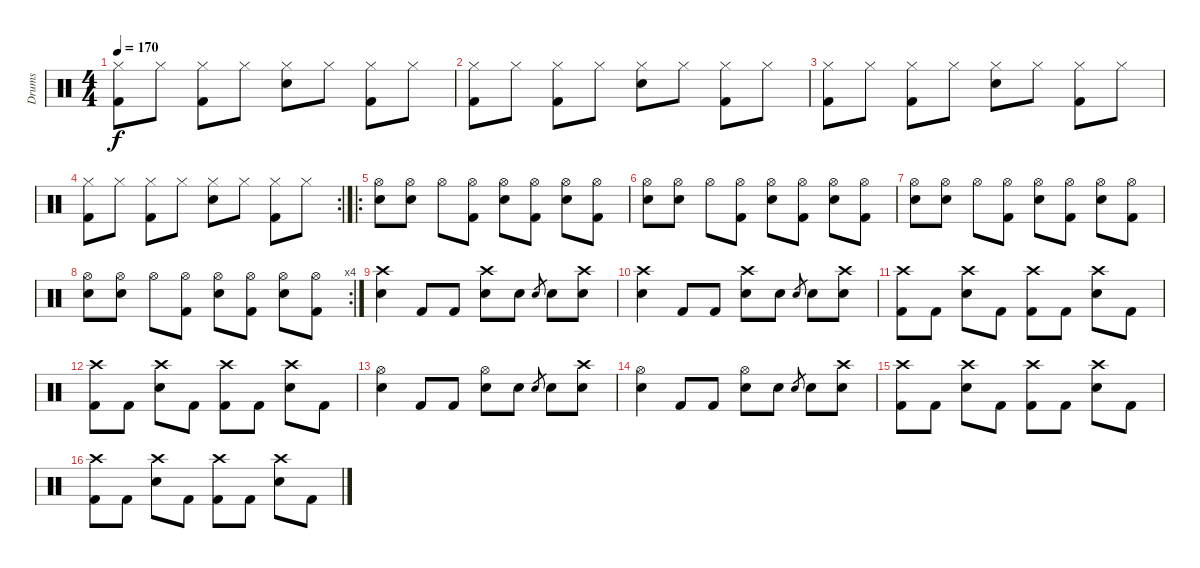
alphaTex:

\track ("Drums" "Drums") {instrument percussion}
\staff {score}
\articulation defaults
\ts (4 4)
\tempo 170
\clef neutral
\ks c
("Hi-Hat (closed)" "Kick (hit) 2").8{dy f} "Hi-Hat (closed)".8 ("Hi-Hat (closed)" "Kick (hit) 2").8 "Hi-Hat (closed)".8 ("Hi-Hat (closed)" "Snare (hit) 2").8 "Hi-Hat (closed)".8 ("Hi-Hat (closed)" "Kick (hit) 2").8 "Hi-Hat (closed)".8 |
("Hi-Hat (closed)" "Kick (hit) 2").8 "Hi-Hat (closed)".8 ("Hi-Hat (closed)" "Kick (hit) 2").8 "Hi-Hat (closed)".8 ("Hi-Hat (closed)" "Snare (hit) 2").8 "Hi-Hat (closed)".8 ("Hi-Hat (closed)" "Kick (hit) 2").8 "Hi-Hat (closed)".8 |
("Hi-Hat (closed)" "Kick (hit) 2").8 "Hi-Hat (closed)".8 ("Hi-Hat (closed)" "Kick (hit) 2").8 "Hi-Hat (closed)".8 ("Hi-Hat (closed)" "Snare (hit) 2").8 "Hi-Hat (closed)".8 ("Hi-Hat (closed)" "Kick (hit) 2").8 "Hi-Hat (closed)".8 |
\rc 2
("Hi-Hat (closed)" "Kick (hit) 2").8 "Hi-Hat (closed)".8 ("Hi-Hat (closed)" "Kick (hit) 2").8 "Hi-Hat (closed)".8 ("Hi-Hat (closed)" "Snare (hit) 2").8 "Hi-Hat (closed)".8 ("Hi-Hat (closed)" "Kick (hit) 2").8 "Hi-Hat (closed)".8 |
\ro
("Hi-Hat (open)" "Snare (hit) 2").8 ("Hi-Hat (open)" "Snare (hit) 2").8 "Hi-Hat (open)".8 ("Hi-Hat (open)" "Kick (hit) 2").8 ("Hi-Hat (open)" "Snare (hit) 2").8 ("Hi-Hat (open)" "Kick (hit) 2").8 ("Hi-Hat (open)" "Snare (hit) 2").8 ("Hi-Hat (open)" "Kick (hit) 2").8 |
("Hi-Hat (open)" "Snare (hit) 2").8 ("Hi-Hat (open)" "Snare (hit) 2").8 "Hi-Hat (open)".8 ("Hi-Hat (open)" "Kick (hit) 2").8 ("Hi-Hat (open)" "Snare (hit) 2").8 ("Hi-Hat (open)" "Kick (hit) 2").8 ("Hi-Hat (open)" "Snare (hit) 2").8 ("Hi-Hat (open)" "Kick (hit) 2").8 |
("Hi-Hat (open)" "Snare (hit) 2").8 ("Hi-Hat (open)" "Snare (hit) 2").8 "Hi-Hat (open)".8 ("Hi-Hat (open)" "Kick (hit) 2").8 ("Hi-Hat (open)" "Snare (hit) 2").8 ("Hi-Hat (open)" "Kick (hit) 2").8 ("Hi-Hat (open)" "Snare (hit) 2").8 ("Hi-Hat (open)" "Kick (hit) 2").8 |
\rc 4
("Hi-Hat (open)" "Snare (hit) 2").8 ("Hi-Hat (open)" "Snare (hit) 2").8 "Hi-Hat (open)".8 ("Hi-Hat (open)" "Kick (hit) 2").8 ("Hi-Hat (open)" "Snare (hit) 2").8 ("Hi-Hat (open)" "Kick (hit) 2").8 ("Hi-Hat (open)" "Snare (hit) 2").8 ("Hi-Hat (open)" "Kick (hit) 2").8 |
("Crash high (hit)" "Snare (hit) 2").4 "Kick (hit) 2".8 "Kick (hit) 2".8 ("Crash high (hit)" "Snare (hit) 2").8 "Snare (hit) 2".8 "Snare (hit) 2".8{gr} "Snare (hit) 2".8 ("Crash high (hit)" "Snare (hit) 2").8 |
("Crash high (hit)" "Snare (hit) 2").4 "Kick (hit) 2".8 "Kick (hit) 2".8 ("Crash high (hit)" "Snare (hit) 2").8 "Snare (hit) 2".8 "Snare (hit) 2".8{gr} "Snare (hit) 2".8 ("Crash high (hit)" "Snare (hit) 2").8 |
("Crash high (hit)" "Kick (hit) 2").8 "Kick (hit) 2".8 ("Crash high (hit)" "Snare (hit) 2").8 "Kick (hit) 2".8 ("Crash high (hit)" "Kick (hit) 2").8 "Kick (hit) 2".8 ("Crash high (hit)" "Snare (hit) 2").8 "Kick (hit) 2".8 |
("Crash high (hit)" "Kick (hit) 2").8 "Kick (hit) 2".8 ("Crash high (hit)" "Snare (hit) 2").8 "Kick (hit) 2".8 ("Crash high (hit)" "Kick (hit) 2").8 "Kick (hit) 2".8 ("Crash high (hit)" "Snare (hit) 2").8 "Kick (hit) 2".8 |
("Hi-Hat (open)" "Snare (hit) 2").4 "Kick (hit) 2".8 "Kick (hit) 2".8 ("Hi-Hat (open)" "Snare (hit) 2").8 "Snare (hit) 2".8 "Snare (hit) 2".8{gr} "Snare (hit) 2".8 ("Crash high (hit)" "Snare (hit) 2").8 |
("Hi-Hat (open)" "Snare (hit) 2").4 "Kick (hit) 2".8 "Kick (hit) 2".8 ("Hi-Hat (open)" "Snare (hit) 2").8 "Snare (hit) 2".8 "Snare (hit) 2".8{gr} "Snare (hit) 2".8 ("Crash high (hit)" "Snare (hit) 2").8 |
("Crash high (hit)" "Kick (hit) 2").8 "Kick (hit) 2".8 ("Crash high (hit)" "Snare (hit) 2").8 "Kick (hit) 2".8 ("Crash high (hit)" "Kick (hit) 2").8 "Kick (hit) 2".8 ("Crash high (hit)" "Snare (hit) 2").8 "Kick (hit) 2".8 |
("Crash high (hit)" "Kick (hit) 2").8 "Kick (hit) 2".8 ("Crash high (hit)" "Snare (hit) 2").8 "Kick (hit) 2".8 ("Crash high (hit)" "Kick (hit) 2").8 "Kick (hit) 2".8 ("Crash high (hit)" "Snare (hit) 2").8 "Kick (hit) 2".8
